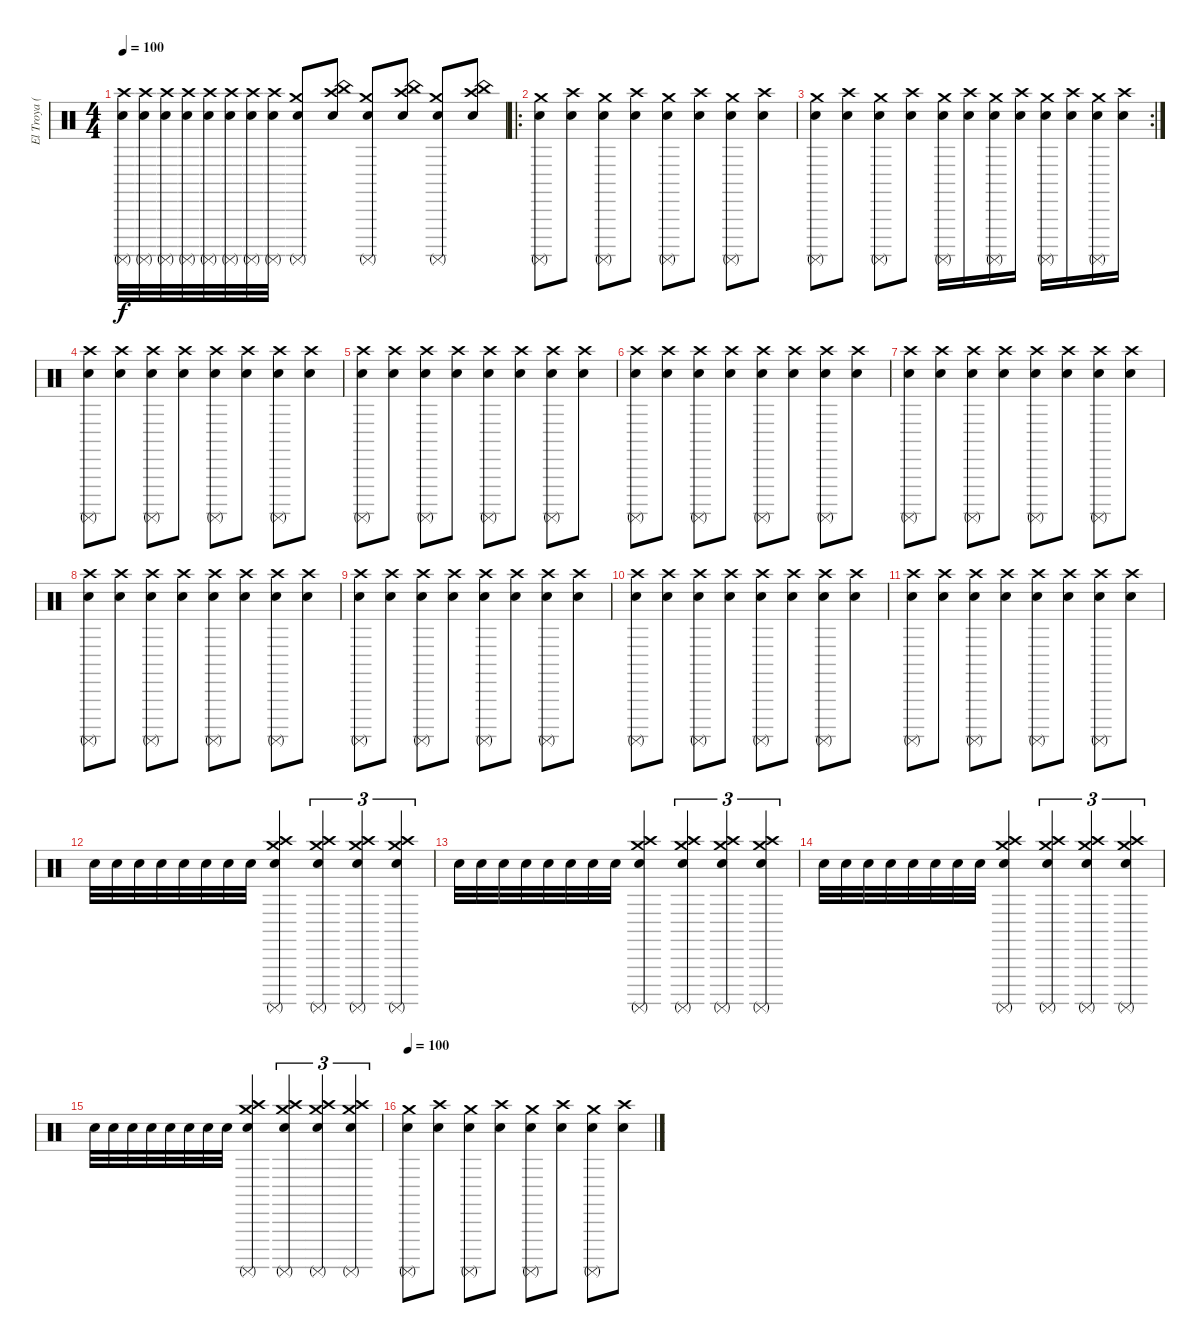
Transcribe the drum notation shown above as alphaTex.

\track ("El Troya (Premio)" "El Troya (") {instrument percussion}
\staff {score}
\articulation defaults
\ts (4 4)
\tempo 100
\clef neutral
\ks c
("Snare (hit) 2" "Surdo (mute)" "Crash high (hit)").32{dy f} ("Snare (hit) 2" "Surdo (mute)" "Crash high (hit)").32 ("Snare (hit) 2" "Surdo (mute)" "Crash high (hit)").32 ("Snare (hit) 2" "Surdo (mute)" "Crash high (hit)").32 ("Snare (hit) 2" "Surdo (mute)" "Crash high (hit)").32 ("Snare (hit) 2" "Surdo (mute)" "Crash high (hit)").32 ("Snare (hit) 2" "Surdo (mute)" "Crash high (hit)").32 ("Snare (hit) 2" "Surdo (mute)" "Crash high (hit)").32 ("Surdo (mute)" "Electric Snare (hit)" "Crash medium (hit)").8 ("Snare (hit) 2" "Crash high (hit)" "China (hit)").8 ("Surdo (mute)" "Electric Snare (hit)" "Crash medium (hit)").8 ("Snare (hit) 2" "Crash high (hit)" "China (hit)").8 ("Surdo (mute)" "Electric Snare (hit)" "Crash medium (hit)").8 ("Snare (hit) 2" "Crash high (hit)" "China (hit)").8 |
\ro
("Surdo (mute)" "Crash medium (hit)" "Snare (hit) 2").8 ("Electric Snare (hit)" "Crash high (hit)").8 ("Surdo (mute)" "Crash medium (hit)" "Snare (hit) 2").8 ("Electric Snare (hit)" "Crash high (hit)").8 ("Surdo (mute)" "Crash medium (hit)" "Snare (hit) 2").8 ("Electric Snare (hit)" "Crash high (hit)").8 ("Surdo (mute)" "Crash medium (hit)" "Snare (hit) 2").8 ("Electric Snare (hit)" "Crash high (hit)").8 |
\rc 2
("Surdo (mute)" "Crash medium (hit)" "Snare (hit) 2").8 ("Electric Snare (hit)" "Crash high (hit)").8 ("Surdo (mute)" "Crash medium (hit)" "Snare (hit) 2").8 ("Electric Snare (hit)" "Crash high (hit)").8 ("Surdo (mute)" "Crash medium (hit)" "Snare (hit) 2").16 ("Electric Snare (hit)" "Crash high (hit)").16 ("Surdo (mute)" "Crash medium (hit)" "Snare (hit) 2").16 ("Electric Snare (hit)" "Crash high (hit)").16 ("Surdo (mute)" "Crash medium (hit)" "Snare (hit) 2").16 ("Electric Snare (hit)" "Crash high (hit)").16 ("Surdo (mute)" "Crash medium (hit)" "Snare (hit) 2").16 ("Electric Snare (hit)" "Crash high (hit)").16 |
("Snare (hit) 2" "Crash high (hit)" "Surdo (mute)").8 ("Crash high (hit)" "Electric Snare (hit)").8 ("Snare (hit) 2" "Crash high (hit)" "Surdo (mute)").8 ("Crash high (hit)" "Electric Snare (hit)").8 ("Snare (hit) 2" "Crash high (hit)" "Surdo (mute)").8 ("Crash high (hit)" "Electric Snare (hit)").8 ("Snare (hit) 2" "Crash high (hit)" "Surdo (mute)").8 ("Crash high (hit)" "Electric Snare (hit)").8 |
("Snare (hit) 2" "Crash high (hit)" "Surdo (mute)").8 ("Crash high (hit)" "Electric Snare (hit)").8 ("Snare (hit) 2" "Crash high (hit)" "Surdo (mute)").8 ("Crash high (hit)" "Electric Snare (hit)").8 ("Snare (hit) 2" "Crash high (hit)" "Surdo (mute)").8 ("Crash high (hit)" "Electric Snare (hit)").8 ("Snare (hit) 2" "Crash high (hit)" "Surdo (mute)").8 ("Crash high (hit)" "Electric Snare (hit)").8 |
("Snare (hit) 2" "Crash high (hit)" "Surdo (mute)").8 ("Crash high (hit)" "Electric Snare (hit)").8 ("Snare (hit) 2" "Crash high (hit)" "Surdo (mute)").8 ("Crash high (hit)" "Electric Snare (hit)").8 ("Snare (hit) 2" "Crash high (hit)" "Surdo (mute)").8 ("Crash high (hit)" "Electric Snare (hit)").8 ("Snare (hit) 2" "Crash high (hit)" "Surdo (mute)").8 ("Crash high (hit)" "Electric Snare (hit)").8 |
("Snare (hit) 2" "Crash high (hit)" "Surdo (mute)").8 ("Crash high (hit)" "Electric Snare (hit)").8 ("Snare (hit) 2" "Crash high (hit)" "Surdo (mute)").8 ("Crash high (hit)" "Electric Snare (hit)").8 ("Snare (hit) 2" "Crash high (hit)" "Surdo (mute)").8 ("Crash high (hit)" "Electric Snare (hit)").8 ("Snare (hit) 2" "Crash high (hit)" "Surdo (mute)").8 ("Crash high (hit)" "Electric Snare (hit)").8 |
("Snare (hit) 2" "Crash high (hit)" "Surdo (mute)").8 ("Crash high (hit)" "Electric Snare (hit)").8 ("Snare (hit) 2" "Crash high (hit)" "Surdo (mute)").8 ("Crash high (hit)" "Electric Snare (hit)").8 ("Snare (hit) 2" "Crash high (hit)" "Surdo (mute)").8 ("Crash high (hit)" "Electric Snare (hit)").8 ("Snare (hit) 2" "Crash high (hit)" "Surdo (mute)").8 ("Crash high (hit)" "Electric Snare (hit)").8 |
("Snare (hit) 2" "Crash high (hit)" "Surdo (mute)").8 ("Crash high (hit)" "Electric Snare (hit)").8 ("Snare (hit) 2" "Crash high (hit)" "Surdo (mute)").8 ("Crash high (hit)" "Electric Snare (hit)").8 ("Snare (hit) 2" "Crash high (hit)" "Surdo (mute)").8 ("Crash high (hit)" "Electric Snare (hit)").8 ("Snare (hit) 2" "Crash high (hit)" "Surdo (mute)").8 ("Crash high (hit)" "Electric Snare (hit)").8 |
("Snare (hit) 2" "Crash high (hit)" "Surdo (mute)").8 ("Crash high (hit)" "Electric Snare (hit)").8 ("Snare (hit) 2" "Crash high (hit)" "Surdo (mute)").8 ("Crash high (hit)" "Electric Snare (hit)").8 ("Snare (hit) 2" "Crash high (hit)" "Surdo (mute)").8 ("Crash high (hit)" "Electric Snare (hit)").8 ("Snare (hit) 2" "Crash high (hit)" "Surdo (mute)").8 ("Crash high (hit)" "Electric Snare (hit)").8 |
("Snare (hit) 2" "Crash high (hit)" "Surdo (mute)").8 ("Crash high (hit)" "Electric Snare (hit)").8 ("Snare (hit) 2" "Crash high (hit)" "Surdo (mute)").8 ("Crash high (hit)" "Electric Snare (hit)").8 ("Snare (hit) 2" "Crash high (hit)" "Surdo (mute)").8 ("Crash high (hit)" "Electric Snare (hit)").8 ("Snare (hit) 2" "Crash high (hit)" "Surdo (mute)").8 ("Crash high (hit)" "Electric Snare (hit)").8 |
"Snare (hit) 2".32 "Snare (hit) 2".32 "Snare (hit) 2".32 "Snare (hit) 2".32 "Snare (hit) 2".32 "Snare (hit) 2".32 "Snare (hit) 2".32 "Snare (hit) 2".32 ("Crash medium (hit)" "Crash high (hit)" "Electric Snare (hit)" "Surdo (mute)").4 ("Crash medium (hit)" "Crash high (hit)" "Electric Snare (hit)" "Surdo (mute)").4{tu (3 2)} ("Electric Snare (hit)" "Crash medium (hit)" "Crash high (hit)" "Surdo (mute)").4{tu (3 2)} ("Electric Snare (hit)" "Crash medium (hit)" "Crash high (hit)" "Surdo (mute)").4{tu (3 2)} |
"Snare (hit) 2".32 "Snare (hit) 2".32 "Snare (hit) 2".32 "Snare (hit) 2".32 "Snare (hit) 2".32 "Snare (hit) 2".32 "Snare (hit) 2".32 "Snare (hit) 2".32 ("Crash medium (hit)" "Crash high (hit)" "Electric Snare (hit)" "Surdo (mute)").4 ("Crash medium (hit)" "Crash high (hit)" "Electric Snare (hit)" "Surdo (mute)").4{tu (3 2)} ("Electric Snare (hit)" "Crash medium (hit)" "Crash high (hit)" "Surdo (mute)").4{tu (3 2)} ("Electric Snare (hit)" "Crash medium (hit)" "Crash high (hit)" "Surdo (mute)").4{tu (3 2)} |
"Snare (hit) 2".32 "Snare (hit) 2".32 "Snare (hit) 2".32 "Snare (hit) 2".32 "Snare (hit) 2".32 "Snare (hit) 2".32 "Snare (hit) 2".32 "Snare (hit) 2".32 ("Crash medium (hit)" "Crash high (hit)" "Electric Snare (hit)" "Surdo (mute)").4 ("Crash medium (hit)" "Crash high (hit)" "Electric Snare (hit)" "Surdo (mute)").4{tu (3 2)} ("Electric Snare (hit)" "Crash medium (hit)" "Crash high (hit)" "Surdo (mute)").4{tu (3 2)} ("Electric Snare (hit)" "Crash medium (hit)" "Crash high (hit)" "Surdo (mute)").4{tu (3 2)} |
"Snare (hit) 2".32 "Snare (hit) 2".32 "Snare (hit) 2".32 "Snare (hit) 2".32 "Snare (hit) 2".32 "Snare (hit) 2".32 "Snare (hit) 2".32 "Snare (hit) 2".32 ("Crash medium (hit)" "Crash high (hit)" "Electric Snare (hit)" "Surdo (mute)").4 ("Crash medium (hit)" "Crash high (hit)" "Electric Snare (hit)" "Surdo (mute)").4{tu (3 2)} ("Electric Snare (hit)" "Crash medium (hit)" "Crash high (hit)" "Surdo (mute)").4{tu (3 2)} ("Electric Snare (hit)" "Crash medium (hit)" "Crash high (hit)" "Surdo (mute)").4{tu (3 2)} |
\tempo 100
("Surdo (mute)" "Crash medium (hit)" "Snare (hit) 2").8 ("Electric Snare (hit)" "Crash high (hit)").8 ("Surdo (mute)" "Crash medium (hit)" "Snare (hit) 2").8 ("Electric Snare (hit)" "Crash high (hit)").8 ("Surdo (mute)" "Crash medium (hit)" "Snare (hit) 2").8 ("Electric Snare (hit)" "Crash high (hit)").8 ("Surdo (mute)" "Crash medium (hit)" "Snare (hit) 2").8 ("Electric Snare (hit)" "Crash high (hit)").8
